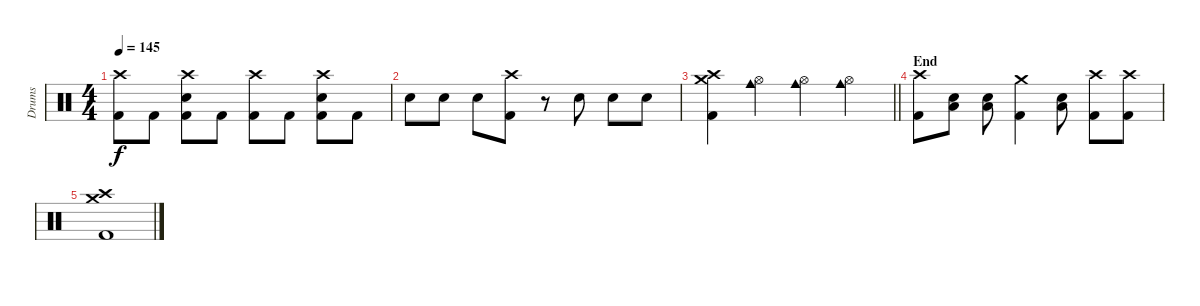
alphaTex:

\track ("Drums" "Drums") {instrument percussion}
\staff {score}
\articulation defaults
\ts (4 4)
\tempo 145
\clef neutral
\ks c
("Crash high (hit)" "Kick (hit) 2").8{dy f} "Kick (hit) 2".8 ("Crash high (hit)" "Snare (hit) 2" "Kick (hit) 2").8 "Kick (hit) 2".8 ("Crash high (hit)" "Kick (hit) 2").8 "Kick (hit) 2".8 ("Crash high (hit)" "Snare (hit) 2" "Kick (hit) 2").8 "Kick (hit) 2".8 |
"Snare (hit) 2".8 "Snare (hit) 2".8 "Snare (hit) 2".8 ("Crash high (hit)" "Kick (hit) 2").8 r.8 "Snare (hit) 2".8 "Snare (hit) 2".8 "Snare (hit) 2".8 |
\barLineRight lightlight
("Crash medium (hit)" "Crash high (hit)" "Kick (hit) 2").4 ("Hi-Hat (open)" "Cowbell medium (hit)").4 ("Hi-Hat (open)" "Cowbell medium (hit)").4 ("Hi-Hat (open)" "Cowbell medium (hit)").4 |
\section ("" "End")
("Crash high (hit)" "Kick (hit) 2").8 ("Snare (hit) 2" "Low Floor Tom (hit)").8 ("Snare (hit) 2" "Low Floor Tom (hit)").8 ("Crash medium (hit)" "Kick (hit) 2").4 ("Snare (hit) 2" "Low Floor Tom (hit)").8 ("Crash high (hit)" "Kick (hit) 2").8 ("Crash high (hit)" "Kick (hit) 2").8 |
("Crash high (hit)" "Crash medium (hit)" "Kick (hit) 2").1
